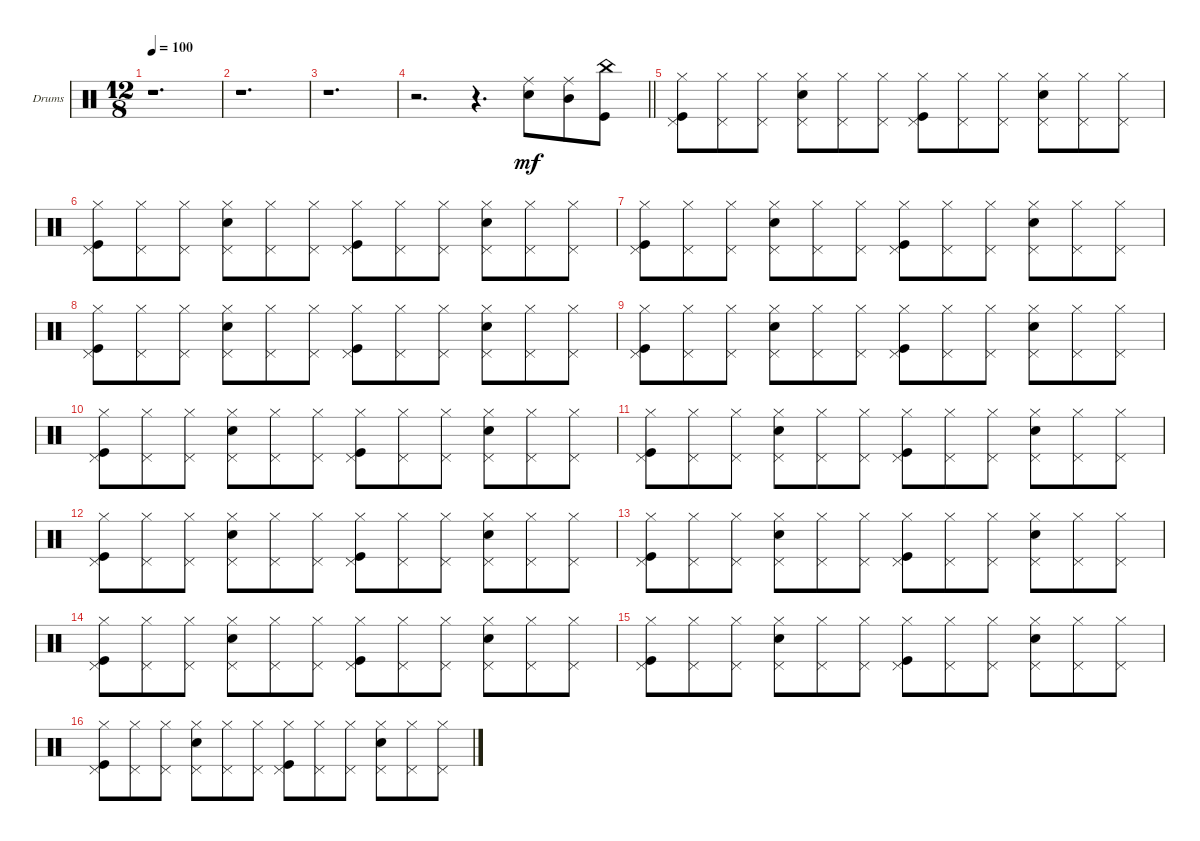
\defaultSystemsLayout 4
\bracketExtendMode nobrackets
\firstSystemTrackNameOrientation horizontal
\otherSystemsTrackNameOrientation horizontal
\track ("Drumkit" "Drums") {instrument percussion}
\staff {score}
\articulation defaults
\ts (12 8)
\tempo 100
\clef neutral
\ks c
r.1{d dy mf} |
r.1{d} |
r.1{d} |
\barLineRight lightlight
r.2{d} r.4{d} ("Ride (middle)" "Snare (hit) 2").8 ("Mid Tom (hit)" "Ride (middle)").8 ("China (hit)" "Kick (hit)").8 |
("Pedal Hi-Hat (hit)" "Kick (hit)" "Hi-Hat (closed)").8 ("Pedal Hi-Hat (hit)" "Hi-Hat (closed)").8 ("Pedal Hi-Hat (hit)" "Hi-Hat (closed)").8 ("Pedal Hi-Hat (hit)" "Snare (hit) 2" "Hi-Hat (closed)").8 ("Pedal Hi-Hat (hit)" "Hi-Hat (closed)").8 ("Pedal Hi-Hat (hit)" "Hi-Hat (closed)").8 ("Pedal Hi-Hat (hit)" "Kick (hit)" "Hi-Hat (closed)").8 ("Pedal Hi-Hat (hit)" "Hi-Hat (closed)").8 ("Pedal Hi-Hat (hit)" "Hi-Hat (closed)").8 ("Pedal Hi-Hat (hit)" "Snare (hit) 2" "Hi-Hat (closed)").8 ("Pedal Hi-Hat (hit)" "Hi-Hat (closed)").8 ("Pedal Hi-Hat (hit)" "Hi-Hat (closed)").8 |
("Pedal Hi-Hat (hit)" "Kick (hit)" "Hi-Hat (closed)").8 ("Pedal Hi-Hat (hit)" "Hi-Hat (closed)").8 ("Pedal Hi-Hat (hit)" "Hi-Hat (closed)").8 ("Pedal Hi-Hat (hit)" "Snare (hit) 2" "Hi-Hat (closed)").8 ("Pedal Hi-Hat (hit)" "Hi-Hat (closed)").8 ("Pedal Hi-Hat (hit)" "Hi-Hat (closed)").8 ("Pedal Hi-Hat (hit)" "Kick (hit)" "Hi-Hat (closed)").8 ("Pedal Hi-Hat (hit)" "Hi-Hat (closed)").8 ("Pedal Hi-Hat (hit)" "Hi-Hat (closed)").8 ("Pedal Hi-Hat (hit)" "Snare (hit) 2" "Hi-Hat (closed)").8 ("Pedal Hi-Hat (hit)" "Hi-Hat (closed)").8 ("Pedal Hi-Hat (hit)" "Hi-Hat (closed)").8 |
("Pedal Hi-Hat (hit)" "Kick (hit)" "Hi-Hat (closed)").8 ("Pedal Hi-Hat (hit)" "Hi-Hat (closed)").8 ("Pedal Hi-Hat (hit)" "Hi-Hat (closed)").8 ("Pedal Hi-Hat (hit)" "Snare (hit) 2" "Hi-Hat (closed)").8 ("Pedal Hi-Hat (hit)" "Hi-Hat (closed)").8 ("Pedal Hi-Hat (hit)" "Hi-Hat (closed)").8 ("Pedal Hi-Hat (hit)" "Kick (hit)" "Hi-Hat (closed)").8 ("Pedal Hi-Hat (hit)" "Hi-Hat (closed)").8 ("Pedal Hi-Hat (hit)" "Hi-Hat (closed)").8 ("Pedal Hi-Hat (hit)" "Snare (hit) 2" "Hi-Hat (closed)").8 ("Pedal Hi-Hat (hit)" "Hi-Hat (closed)").8 ("Pedal Hi-Hat (hit)" "Hi-Hat (closed)").8 |
("Pedal Hi-Hat (hit)" "Kick (hit)" "Hi-Hat (closed)").8 ("Pedal Hi-Hat (hit)" "Hi-Hat (closed)").8 ("Pedal Hi-Hat (hit)" "Hi-Hat (closed)").8 ("Pedal Hi-Hat (hit)" "Snare (hit) 2" "Hi-Hat (closed)").8 ("Pedal Hi-Hat (hit)" "Hi-Hat (closed)").8 ("Pedal Hi-Hat (hit)" "Hi-Hat (closed)").8 ("Pedal Hi-Hat (hit)" "Kick (hit)" "Hi-Hat (closed)").8 ("Pedal Hi-Hat (hit)" "Hi-Hat (closed)").8 ("Pedal Hi-Hat (hit)" "Hi-Hat (closed)").8 ("Pedal Hi-Hat (hit)" "Snare (hit) 2" "Hi-Hat (closed)").8 ("Pedal Hi-Hat (hit)" "Hi-Hat (closed)").8 ("Pedal Hi-Hat (hit)" "Hi-Hat (closed)").8 |
("Pedal Hi-Hat (hit)" "Kick (hit)" "Hi-Hat (closed)").8 ("Pedal Hi-Hat (hit)" "Hi-Hat (closed)").8 ("Pedal Hi-Hat (hit)" "Hi-Hat (closed)").8 ("Pedal Hi-Hat (hit)" "Snare (hit) 2" "Hi-Hat (closed)").8 ("Pedal Hi-Hat (hit)" "Hi-Hat (closed)").8 ("Pedal Hi-Hat (hit)" "Hi-Hat (closed)").8 ("Pedal Hi-Hat (hit)" "Kick (hit)" "Hi-Hat (closed)").8 ("Pedal Hi-Hat (hit)" "Hi-Hat (closed)").8 ("Pedal Hi-Hat (hit)" "Hi-Hat (closed)").8 ("Pedal Hi-Hat (hit)" "Snare (hit) 2" "Hi-Hat (closed)").8 ("Pedal Hi-Hat (hit)" "Hi-Hat (closed)").8 ("Pedal Hi-Hat (hit)" "Hi-Hat (closed)").8 |
("Pedal Hi-Hat (hit)" "Kick (hit)" "Hi-Hat (closed)").8 ("Pedal Hi-Hat (hit)" "Hi-Hat (closed)").8 ("Pedal Hi-Hat (hit)" "Hi-Hat (closed)").8 ("Pedal Hi-Hat (hit)" "Snare (hit) 2" "Hi-Hat (closed)").8 ("Pedal Hi-Hat (hit)" "Hi-Hat (closed)").8 ("Pedal Hi-Hat (hit)" "Hi-Hat (closed)").8 ("Pedal Hi-Hat (hit)" "Kick (hit)" "Hi-Hat (closed)").8 ("Pedal Hi-Hat (hit)" "Hi-Hat (closed)").8 ("Pedal Hi-Hat (hit)" "Hi-Hat (closed)").8 ("Pedal Hi-Hat (hit)" "Snare (hit) 2" "Hi-Hat (closed)").8 ("Pedal Hi-Hat (hit)" "Hi-Hat (closed)").8 ("Pedal Hi-Hat (hit)" "Hi-Hat (closed)").8 |
("Pedal Hi-Hat (hit)" "Kick (hit)" "Hi-Hat (closed)").8 ("Pedal Hi-Hat (hit)" "Hi-Hat (closed)").8 ("Pedal Hi-Hat (hit)" "Hi-Hat (closed)").8 ("Pedal Hi-Hat (hit)" "Snare (hit) 2" "Hi-Hat (closed)").8 ("Pedal Hi-Hat (hit)" "Hi-Hat (closed)").8 ("Pedal Hi-Hat (hit)" "Hi-Hat (closed)").8 ("Pedal Hi-Hat (hit)" "Kick (hit)" "Hi-Hat (closed)").8 ("Pedal Hi-Hat (hit)" "Hi-Hat (closed)").8 ("Pedal Hi-Hat (hit)" "Hi-Hat (closed)").8 ("Pedal Hi-Hat (hit)" "Snare (hit) 2" "Hi-Hat (closed)").8 ("Pedal Hi-Hat (hit)" "Hi-Hat (closed)").8 ("Pedal Hi-Hat (hit)" "Hi-Hat (closed)").8 |
("Pedal Hi-Hat (hit)" "Kick (hit)" "Hi-Hat (closed)").8 ("Pedal Hi-Hat (hit)" "Hi-Hat (closed)").8 ("Pedal Hi-Hat (hit)" "Hi-Hat (closed)").8 ("Pedal Hi-Hat (hit)" "Snare (hit) 2" "Hi-Hat (closed)").8 ("Pedal Hi-Hat (hit)" "Hi-Hat (closed)").8 ("Pedal Hi-Hat (hit)" "Hi-Hat (closed)").8 ("Pedal Hi-Hat (hit)" "Kick (hit)" "Hi-Hat (closed)").8 ("Pedal Hi-Hat (hit)" "Hi-Hat (closed)").8 ("Pedal Hi-Hat (hit)" "Hi-Hat (closed)").8 ("Pedal Hi-Hat (hit)" "Snare (hit) 2" "Hi-Hat (closed)").8 ("Pedal Hi-Hat (hit)" "Hi-Hat (closed)").8 ("Pedal Hi-Hat (hit)" "Hi-Hat (closed)").8 |
("Pedal Hi-Hat (hit)" "Kick (hit)" "Hi-Hat (closed)").8 ("Pedal Hi-Hat (hit)" "Hi-Hat (closed)").8 ("Pedal Hi-Hat (hit)" "Hi-Hat (closed)").8 ("Pedal Hi-Hat (hit)" "Snare (hit) 2" "Hi-Hat (closed)").8 ("Pedal Hi-Hat (hit)" "Hi-Hat (closed)").8 ("Pedal Hi-Hat (hit)" "Hi-Hat (closed)").8 ("Pedal Hi-Hat (hit)" "Kick (hit)" "Hi-Hat (closed)").8 ("Pedal Hi-Hat (hit)" "Hi-Hat (closed)").8 ("Pedal Hi-Hat (hit)" "Hi-Hat (closed)").8 ("Pedal Hi-Hat (hit)" "Snare (hit) 2" "Hi-Hat (closed)").8 ("Pedal Hi-Hat (hit)" "Hi-Hat (closed)").8 ("Pedal Hi-Hat (hit)" "Hi-Hat (closed)").8 |
("Pedal Hi-Hat (hit)" "Kick (hit)" "Hi-Hat (closed)").8 ("Pedal Hi-Hat (hit)" "Hi-Hat (closed)").8 ("Pedal Hi-Hat (hit)" "Hi-Hat (closed)").8 ("Pedal Hi-Hat (hit)" "Snare (hit) 2" "Hi-Hat (closed)").8 ("Pedal Hi-Hat (hit)" "Hi-Hat (closed)").8 ("Pedal Hi-Hat (hit)" "Hi-Hat (closed)").8 ("Pedal Hi-Hat (hit)" "Kick (hit)" "Hi-Hat (closed)").8 ("Pedal Hi-Hat (hit)" "Hi-Hat (closed)").8 ("Pedal Hi-Hat (hit)" "Hi-Hat (closed)").8 ("Pedal Hi-Hat (hit)" "Snare (hit) 2" "Hi-Hat (closed)").8 ("Pedal Hi-Hat (hit)" "Hi-Hat (closed)").8 ("Pedal Hi-Hat (hit)" "Hi-Hat (closed)").8 |
("Pedal Hi-Hat (hit)" "Kick (hit)" "Hi-Hat (closed)").8 ("Pedal Hi-Hat (hit)" "Hi-Hat (closed)").8 ("Pedal Hi-Hat (hit)" "Hi-Hat (closed)").8 ("Pedal Hi-Hat (hit)" "Snare (hit) 2" "Hi-Hat (closed)").8 ("Pedal Hi-Hat (hit)" "Hi-Hat (closed)").8 ("Pedal Hi-Hat (hit)" "Hi-Hat (closed)").8 ("Pedal Hi-Hat (hit)" "Kick (hit)" "Hi-Hat (closed)").8 ("Pedal Hi-Hat (hit)" "Hi-Hat (closed)").8 ("Pedal Hi-Hat (hit)" "Hi-Hat (closed)").8 ("Pedal Hi-Hat (hit)" "Snare (hit) 2" "Hi-Hat (closed)").8 ("Pedal Hi-Hat (hit)" "Hi-Hat (closed)").8 ("Pedal Hi-Hat (hit)" "Hi-Hat (closed)").8 |
("Pedal Hi-Hat (hit)" "Kick (hit)" "Hi-Hat (closed)").8 ("Pedal Hi-Hat (hit)" "Hi-Hat (closed)").8 ("Pedal Hi-Hat (hit)" "Hi-Hat (closed)").8 ("Pedal Hi-Hat (hit)" "Snare (hit) 2" "Hi-Hat (closed)").8 ("Pedal Hi-Hat (hit)" "Hi-Hat (closed)").8 ("Pedal Hi-Hat (hit)" "Hi-Hat (closed)").8 ("Pedal Hi-Hat (hit)" "Kick (hit)" "Hi-Hat (closed)").8 ("Pedal Hi-Hat (hit)" "Hi-Hat (closed)").8 ("Pedal Hi-Hat (hit)" "Hi-Hat (closed)").8 ("Pedal Hi-Hat (hit)" "Snare (hit) 2" "Hi-Hat (closed)").8 ("Pedal Hi-Hat (hit)" "Hi-Hat (closed)").8 ("Pedal Hi-Hat (hit)" "Hi-Hat (closed)").8
